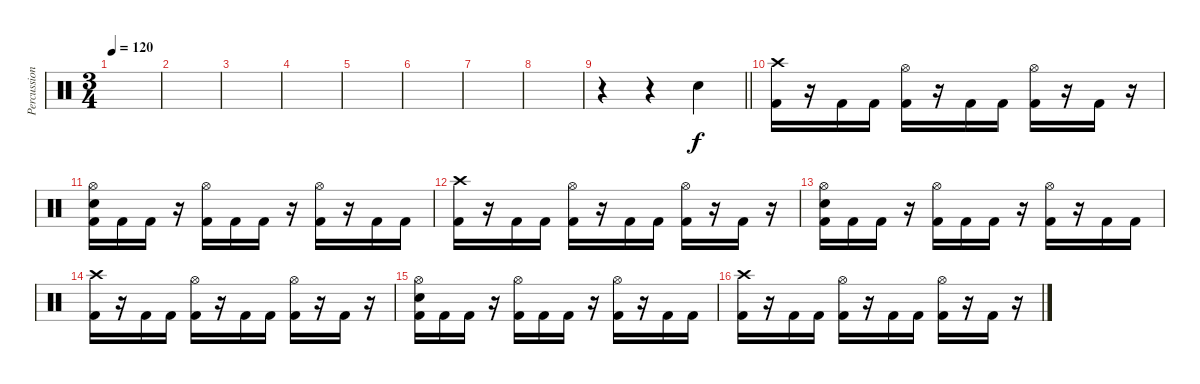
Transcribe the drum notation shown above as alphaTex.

\track ("Percussion" "Percussion") {instrument percussion}
\staff {score}
\articulation defaults
\ts (3 4)
\tempo 120
\clef neutral
\ks c
|
|
|
|
|
|
|
|
\barLineRight lightlight
r.4 r.4 "Electric Snare (hit)".4 |
("Kick (hit) 2" "Crash high (hit)").16 r.16 "Kick (hit) 2".16 "Kick (hit) 2".16 ("Kick (hit) 2" "Hi-Hat (open)").16 r.16 "Kick (hit) 2".16 "Kick (hit) 2".16 ("Kick (hit) 2" "Hi-Hat (open)").16 r.16 "Kick (hit) 2".16 r.16 |
("Kick (hit) 2" "Electric Snare (hit)" "Hi-Hat (open)").16 "Kick (hit) 2".16 "Kick (hit) 2".16 r.16 ("Kick (hit) 2" "Hi-Hat (open)").16 "Kick (hit) 2".16 "Kick (hit) 2".16 r.16 ("Kick (hit) 2" "Hi-Hat (open)").16 r.16 "Kick (hit) 2".16 "Kick (hit) 2".16 |
("Kick (hit) 2" "Crash high (hit)").16 r.16 "Kick (hit) 2".16 "Kick (hit) 2".16 ("Kick (hit) 2" "Hi-Hat (open)").16 r.16 "Kick (hit) 2".16 "Kick (hit) 2".16 ("Kick (hit) 2" "Hi-Hat (open)").16 r.16 "Kick (hit) 2".16 r.16 |
("Kick (hit) 2" "Electric Snare (hit)" "Hi-Hat (open)").16 "Kick (hit) 2".16 "Kick (hit) 2".16 r.16 ("Kick (hit) 2" "Hi-Hat (open)").16 "Kick (hit) 2".16 "Kick (hit) 2".16 r.16 ("Kick (hit) 2" "Hi-Hat (open)").16 r.16 "Kick (hit) 2".16 "Kick (hit) 2".16 |
("Kick (hit) 2" "Crash high (hit)").16 r.16 "Kick (hit) 2".16 "Kick (hit) 2".16 ("Kick (hit) 2" "Hi-Hat (open)").16 r.16 "Kick (hit) 2".16 "Kick (hit) 2".16 ("Kick (hit) 2" "Hi-Hat (open)").16 r.16 "Kick (hit) 2".16 r.16 |
("Kick (hit) 2" "Electric Snare (hit)" "Hi-Hat (open)").16 "Kick (hit) 2".16 "Kick (hit) 2".16 r.16 ("Kick (hit) 2" "Hi-Hat (open)").16 "Kick (hit) 2".16 "Kick (hit) 2".16 r.16 ("Kick (hit) 2" "Hi-Hat (open)").16 r.16 "Kick (hit) 2".16 "Kick (hit) 2".16 |
("Kick (hit) 2" "Crash high (hit)").16 r.16 "Kick (hit) 2".16 "Kick (hit) 2".16 ("Kick (hit) 2" "Hi-Hat (open)").16 r.16 "Kick (hit) 2".16 "Kick (hit) 2".16 ("Kick (hit) 2" "Hi-Hat (open)").16 r.16 "Kick (hit) 2".16 r.16
